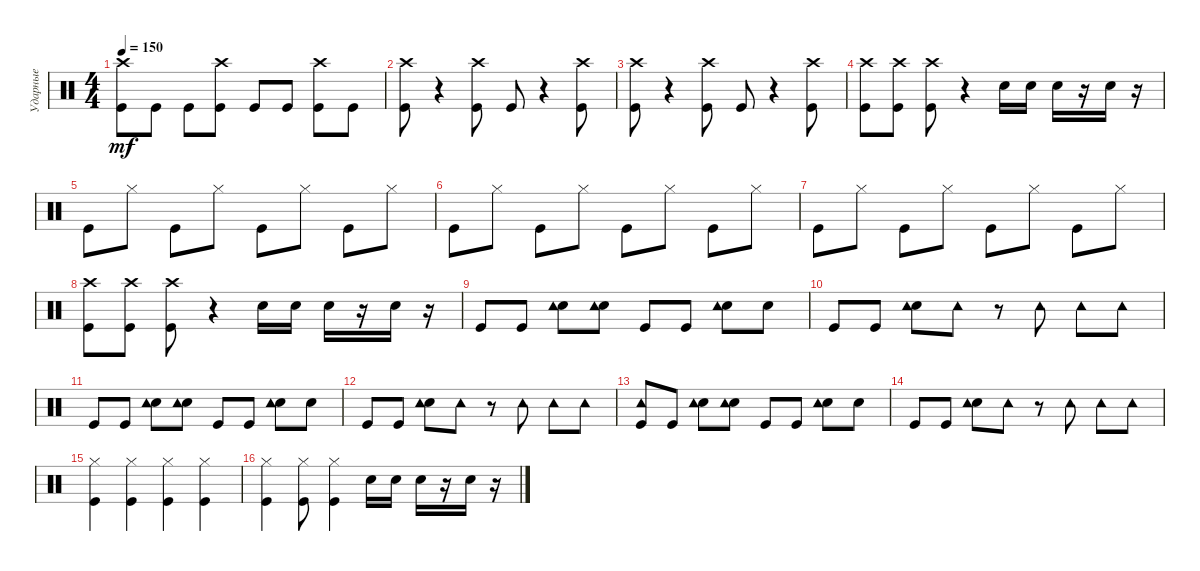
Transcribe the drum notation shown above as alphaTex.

\track ("Ударные" "Ударные") {instrument percussion}
\staff {score}
\articulation defaults
\ts (4 4)
\tempo 150
\clef neutral
\ks c
("Kick (hit)" "Crash high (hit)").8{dy mf} "Kick (hit)".8 "Kick (hit)".8 ("Kick (hit)" "Crash high (hit)").8 "Kick (hit)".8 "Kick (hit)".8 ("Kick (hit)" "Crash high (hit)").8 "Kick (hit)".8 |
("Kick (hit)" "Crash high (hit)").8 r.4 ("Kick (hit)" "Crash high (hit)").8 "Kick (hit)".8 r.4 ("Kick (hit)" "Crash high (hit)").8 |
("Kick (hit)" "Crash high (hit)").8 r.4 ("Kick (hit)" "Crash high (hit)").8 "Kick (hit)".8 r.4 ("Kick (hit)" "Crash high (hit)").8 |
("Kick (hit)" "Crash high (hit)").8 ("Kick (hit)" "Crash high (hit)").8 ("Kick (hit)" "Crash high (hit)").8 r.4 "Electric Snare (hit)".16 "Electric Snare (hit)".16 "Electric Snare (hit)".16 r.16 "Electric Snare (hit)".16 r.16 |
"Kick (hit)".8 "Hi-Hat (closed)".8 "Kick (hit)".8 "Hi-Hat (closed)".8 "Kick (hit)".8 "Hi-Hat (closed)".8 "Kick (hit)".8 "Hi-Hat (closed)".8 |
"Kick (hit)".8 "Hi-Hat (closed)".8 "Kick (hit)".8 "Hi-Hat (closed)".8 "Kick (hit)".8 "Hi-Hat (closed)".8 "Kick (hit)".8 "Hi-Hat (closed)".8 |
"Kick (hit)".8 "Hi-Hat (closed)".8 "Kick (hit)".8 "Hi-Hat (closed)".8 "Kick (hit)".8 "Hi-Hat (closed)".8 "Kick (hit)".8 "Hi-Hat (closed)".8 |
("Kick (hit)" "Crash high (hit)").8 ("Kick (hit)" "Crash high (hit)").8 ("Kick (hit)" "Crash high (hit)").8 r.4 "Electric Snare (hit)".16 "Electric Snare (hit)".16 "Electric Snare (hit)".16 r.16 "Electric Snare (hit)".16 r.16 |
"Kick (hit)".8 "Kick (hit)".8 ("Electric Snare (hit)" "Tambourine (hit)").8 ("Electric Snare (hit)" "Tambourine (hit)").8 "Kick (hit)".8 "Kick (hit)".8 ("Electric Snare (hit)" "Tambourine (hit)").8 "Electric Snare (hit)".8 |
"Kick (hit)".8 "Kick (hit)".8 ("Electric Snare (hit)" "Tambourine (hit)").8 "Tambourine (hit)".8 r.8 "Tambourine (hit)".8 "Tambourine (hit)".8 "Tambourine (hit)".8 |
"Kick (hit)".8 "Kick (hit)".8 ("Electric Snare (hit)" "Tambourine (hit)").8 ("Electric Snare (hit)" "Tambourine (hit)").8 "Kick (hit)".8 "Kick (hit)".8 ("Electric Snare (hit)" "Tambourine (hit)").8 "Electric Snare (hit)".8 |
"Kick (hit)".8 "Kick (hit)".8 ("Electric Snare (hit)" "Tambourine (hit)").8 "Tambourine (hit)".8 r.8 "Tambourine (hit)".8 "Tambourine (hit)".8 "Tambourine (hit)".8 |
("Kick (hit)" "Tambourine (hit)").8 "Kick (hit)".8 ("Electric Snare (hit)" "Tambourine (hit)").8 ("Electric Snare (hit)" "Tambourine (hit)").8 "Kick (hit)".8 "Kick (hit)".8 ("Electric Snare (hit)" "Tambourine (hit)").8 "Electric Snare (hit)".8 |
"Kick (hit)".8 "Kick (hit)".8 ("Electric Snare (hit)" "Tambourine (hit)").8 "Tambourine (hit)".8 r.8 "Tambourine (hit)".8 "Tambourine (hit)".8 "Tambourine (hit)".8 |
("Kick (hit)" "Hi-Hat (closed)").4 ("Kick (hit)" "Hi-Hat (closed)").4 ("Kick (hit)" "Hi-Hat (closed)").4 ("Kick (hit)" "Hi-Hat (closed)").4 |
("Kick (hit)" "Hi-Hat (closed)").4 ("Kick (hit)" "Hi-Hat (closed)").8 ("Kick (hit)" "Hi-Hat (closed)").4 "Electric Snare (hit)".16 "Electric Snare (hit)".16 "Electric Snare (hit)".16 r.16 "Electric Snare (hit)".16 r.16
